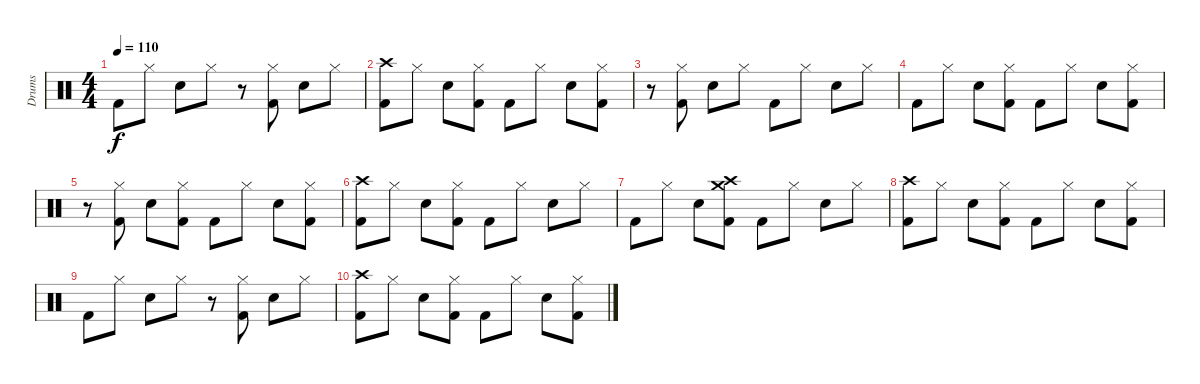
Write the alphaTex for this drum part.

\track ("Drums" "Drums") {instrument percussion}
\staff {score}
\articulation defaults
\ts (4 4)
\tempo 110
\clef neutral
\ks c "Kick (hit) 2".8{dy f} "Hi-Hat (closed)".8 "Snare (hit) 2".8 "Hi-Hat (closed)".8
r.8 ("Kick (hit) 2" "Hi-Hat (closed)").8 "Snare (hit) 2".8 "Hi-Hat (closed)".8 |
("Kick (hit) 2" "Crash high (hit)").8 "Hi-Hat (closed)".8 "Snare (hit) 2".8 ("Kick (hit) 2" "Hi-Hat (closed)").8 "Kick (hit) 2".8 "Hi-Hat (closed)".8 "Snare (hit) 2".8 ("Kick (hit) 2" "Hi-Hat (closed)").8 |
r.8 ("Kick (hit) 2" "Hi-Hat (closed)").8 "Snare (hit) 2".8 "Hi-Hat (closed)".8 "Kick (hit) 2".8 "Hi-Hat (closed)".8 "Snare (hit) 2".8 "Hi-Hat (closed)".8 |
"Kick (hit) 2".8 "Hi-Hat (closed)".8 "Snare (hit) 2".8 ("Kick (hit) 2" "Hi-Hat (closed)").8 "Kick (hit) 2".8 "Hi-Hat (closed)".8 "Snare (hit) 2".8 ("Kick (hit) 2" "Hi-Hat (closed)").8 |
r.8 ("Kick (hit) 2" "Hi-Hat (closed)").8 "Snare (hit) 2".8 ("Kick (hit) 2" "Hi-Hat (closed)").8 "Kick (hit) 2".8 "Hi-Hat (closed)".8 "Snare (hit) 2".8 ("Kick (hit) 2" "Hi-Hat (closed)").8 |
("Kick (hit) 2" "Crash high (hit)").8 "Hi-Hat (closed)".8 "Snare (hit) 2".8 ("Kick (hit) 2" "Hi-Hat (closed)").8 "Kick (hit) 2".8 "Hi-Hat (closed)".8 "Snare (hit) 2".8 "Hi-Hat (closed)".8 |
"Kick (hit) 2".8 "Hi-Hat (closed)".8 "Snare (hit) 2".8 ("Kick (hit) 2" "Crash high (hit)" "Crash medium (hit)").8 "Kick (hit) 2".8 "Hi-Hat (closed)".8 "Snare (hit) 2".8 "Hi-Hat (closed)".8 |
("Kick (hit) 2" "Crash high (hit)").8 "Hi-Hat (closed)".8 "Snare (hit) 2".8 ("Kick (hit) 2" "Hi-Hat (closed)").8 "Kick (hit) 2".8 "Hi-Hat (closed)".8 "Snare (hit) 2".8 ("Kick (hit) 2" "Hi-Hat (closed)").8 |
"Kick (hit) 2".8 "Hi-Hat (closed)".8 "Snare (hit) 2".8 "Hi-Hat (closed)".8 r.8 ("Kick (hit) 2" "Hi-Hat (closed)").8 "Snare (hit) 2".8 "Hi-Hat (closed)".8 |
("Kick (hit) 2" "Crash high (hit)").8 "Hi-Hat (closed)".8 "Snare (hit) 2".8 ("Kick (hit) 2" "Hi-Hat (closed)").8 "Kick (hit) 2".8 "Hi-Hat (closed)".8 "Snare (hit) 2".8 ("Kick (hit) 2" "Hi-Hat (closed)").8
